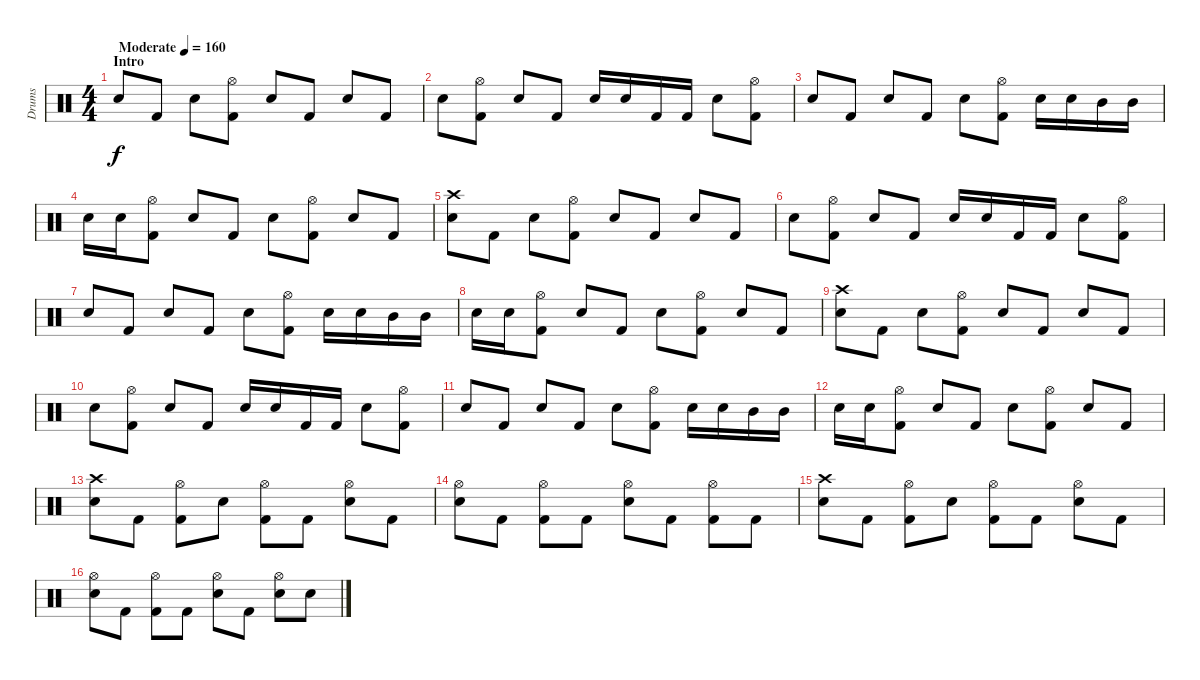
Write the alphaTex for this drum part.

\track ("Drums" "Drums") {instrument percussion}
\staff {score}
\articulation defaults
\ts (4 4)
\section ("" "Intro")
\tempo (160 "Moderate")
\clef neutral
\ks c "Electric Snare (hit)".8{dy f} "Kick (hit) 2".8 "Electric Snare (hit)".8
("Hi-Hat (open)" "Kick (hit) 2").8 "Electric Snare (hit)".8 "Kick (hit) 2".8 "Electric Snare (hit)".8 "Kick (hit) 2".8 |
"Electric Snare (hit)".8 ("Hi-Hat (open)" "Kick (hit) 2").8 "Electric Snare (hit)".8 "Kick (hit) 2".8 "Electric Snare (hit)".16 "Electric Snare (hit)".16 "Kick (hit) 2".16 "Kick (hit) 2".16 "Electric Snare (hit)".8 ("Hi-Hat (open)" "Kick (hit) 2").8 |
"Electric Snare (hit)".8 "Kick (hit) 2".8 "Electric Snare (hit)".8 "Kick (hit) 2".8 "Electric Snare (hit)".8 ("Hi-Hat (open)" "Kick (hit) 2").8 "Electric Snare (hit)".16 "Electric Snare (hit)".16 "Mid Tom (hit)".16 "Mid Tom (hit)".16 |
"Electric Snare (hit)".16 "Electric Snare (hit)".16 ("Hi-Hat (open)" "Kick (hit) 2").8 "Electric Snare (hit)".8 "Kick (hit) 2".8 "Electric Snare (hit)".8 ("Hi-Hat (open)" "Kick (hit) 2").8 "Electric Snare (hit)".8 "Kick (hit) 2".8 |
("Crash high (hit)" "Electric Snare (hit)").8 "Kick (hit) 2".8 "Electric Snare (hit)".8 ("Hi-Hat (open)" "Kick (hit) 2").8 "Electric Snare (hit)".8 "Kick (hit) 2".8 "Electric Snare (hit)".8 "Kick (hit) 2".8 |
"Electric Snare (hit)".8 ("Hi-Hat (open)" "Kick (hit) 2").8 "Electric Snare (hit)".8 "Kick (hit) 2".8 "Electric Snare (hit)".16 "Electric Snare (hit)".16 "Kick (hit) 2".16 "Kick (hit) 2".16 "Electric Snare (hit)".8 ("Hi-Hat (open)" "Kick (hit) 2").8 |
"Electric Snare (hit)".8 "Kick (hit) 2".8 "Electric Snare (hit)".8 "Kick (hit) 2".8 "Electric Snare (hit)".8 ("Hi-Hat (open)" "Kick (hit) 2").8 "Electric Snare (hit)".16 "Electric Snare (hit)".16 "Mid Tom (hit)".16 "Mid Tom (hit)".16 |
"Electric Snare (hit)".16 "Electric Snare (hit)".16 ("Hi-Hat (open)" "Kick (hit) 2").8 "Electric Snare (hit)".8 "Kick (hit) 2".8 "Electric Snare (hit)".8 ("Hi-Hat (open)" "Kick (hit) 2").8 "Electric Snare (hit)".8 "Kick (hit) 2".8 |
("Crash high (hit)" "Electric Snare (hit)").8 "Kick (hit) 2".8 "Electric Snare (hit)".8 ("Hi-Hat (open)" "Kick (hit) 2").8 "Electric Snare (hit)".8 "Kick (hit) 2".8 "Electric Snare (hit)".8 "Kick (hit) 2".8 |
"Electric Snare (hit)".8 ("Hi-Hat (open)" "Kick (hit) 2").8 "Electric Snare (hit)".8 "Kick (hit) 2".8 "Electric Snare (hit)".16 "Electric Snare (hit)".16 "Kick (hit) 2".16 "Kick (hit) 2".16 "Electric Snare (hit)".8 ("Hi-Hat (open)" "Kick (hit) 2").8 |
"Electric Snare (hit)".8 "Kick (hit) 2".8 "Electric Snare (hit)".8 "Kick (hit) 2".8 "Electric Snare (hit)".8 ("Hi-Hat (open)" "Kick (hit) 2").8 "Electric Snare (hit)".16 "Electric Snare (hit)".16 "Mid Tom (hit)".16 "Mid Tom (hit)".16 |
"Electric Snare (hit)".16 "Electric Snare (hit)".16 ("Hi-Hat (open)" "Kick (hit) 2").8 "Electric Snare (hit)".8 "Kick (hit) 2".8 "Electric Snare (hit)".8 ("Hi-Hat (open)" "Kick (hit) 2").8 "Electric Snare (hit)".8 "Kick (hit) 2".8 |
("Crash high (hit)" "Electric Snare (hit)").8 "Kick (hit) 2".8 ("Hi-Hat (open)" "Kick (hit) 2").8 "Electric Snare (hit)".8 ("Hi-Hat (open)" "Kick (hit) 2").8 "Kick (hit) 2".8 ("Hi-Hat (open)" "Electric Snare (hit)").8 "Kick (hit) 2".8 |
("Hi-Hat (open)" "Electric Snare (hit)").8 "Kick (hit) 2".8 ("Hi-Hat (open)" "Kick (hit) 2").8 "Kick (hit) 2".8 ("Hi-Hat (open)" "Electric Snare (hit)").8 "Kick (hit) 2".8 ("Hi-Hat (open)" "Kick (hit) 2").8 "Kick (hit) 2".8 |
("Crash high (hit)" "Electric Snare (hit)").8 "Kick (hit) 2".8 ("Hi-Hat (open)" "Kick (hit) 2").8 "Electric Snare (hit)".8 ("Hi-Hat (open)" "Kick (hit) 2").8 "Kick (hit) 2".8 ("Hi-Hat (open)" "Electric Snare (hit)").8 "Kick (hit) 2".8 |
("Hi-Hat (open)" "Electric Snare (hit)").8 "Kick (hit) 2".8 ("Hi-Hat (open)" "Kick (hit) 2").8 "Kick (hit) 2".8 ("Hi-Hat (open)" "Electric Snare (hit)").8 "Kick (hit) 2".8 ("Hi-Hat (open)" "Electric Snare (hit)").8 "Electric Snare (hit)".8
